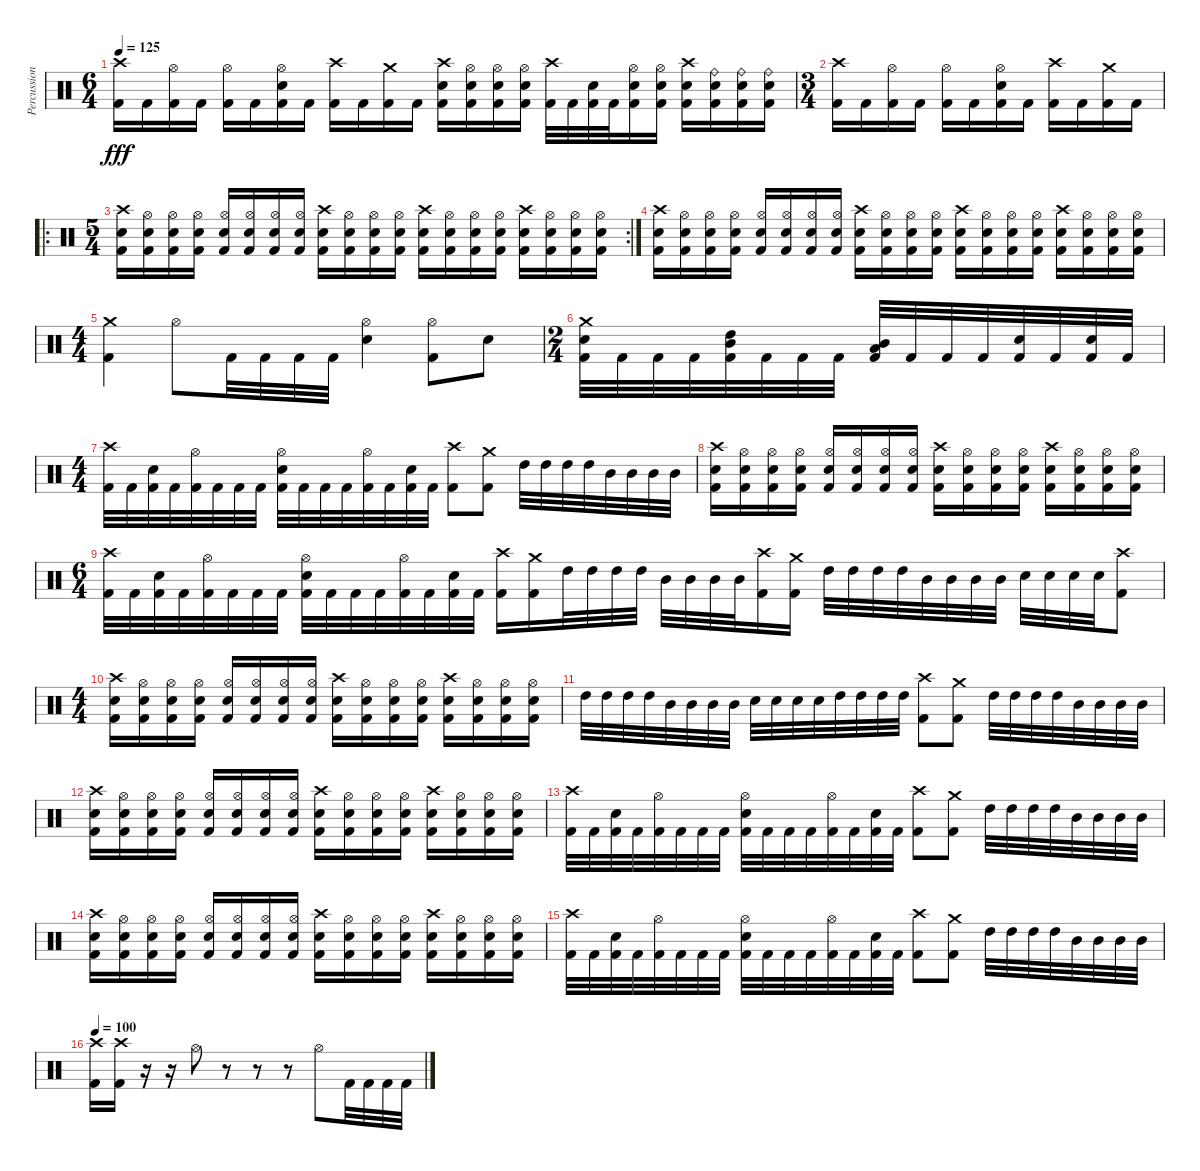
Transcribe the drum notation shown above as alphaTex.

\track ("Percussion" "Percussion") {instrument percussion}
\staff {score}
\articulation defaults
\ts (6 4)
\tempo 125
\clef neutral
\ks c
("Crash high (hit)" "Kick (hit) 2").16{dy fff} "Kick (hit) 2".16 ("Hi-Hat (open)" "Kick (hit) 2").16 "Kick (hit) 2".16 ("Hi-Hat (open)" "Kick (hit) 2").16 "Kick (hit) 2".16 ("Electric Snare (hit)" "Hi-Hat (open)" "Kick (hit) 2").16 "Kick (hit) 2".16 ("Crash high (hit)" "Kick (hit) 2").16 "Kick (hit) 2".16 ("Crash medium (hit)" "Kick (hit) 2").16 "Kick (hit) 2".16 ("Electric Snare (hit)" "Crash high (hit)" "Kick (hit) 2").16 ("Electric Snare (hit)" "Hi-Hat (open)" "Kick (hit) 2").16 ("Electric Snare (hit)" "Hi-Hat (open)" "Kick (hit) 2").16 ("Electric Snare (hit)" "Hi-Hat (open)" "Kick (hit) 2").16 ("Crash high (hit)" "Kick (hit) 2").32 "Kick (hit) 2".32 ("Electric Snare (hit)" "Kick (hit) 2").32 "Kick (hit) 2".32 ("Electric Snare (hit)" "Hi-Hat (open)" "Kick (hit) 2").16 ("Electric Snare (hit)" "Hi-Hat (open)" "Kick (hit) 2").16 ("Electric Snare (hit)" "Crash high (hit)" "Kick (hit) 2").16 ("Electric Snare (hit)" "Ride (bell)" "Kick (hit) 2").16 ("Electric Snare (hit)" "Ride (bell)" "Kick (hit) 2").16 ("Electric Snare (hit)" "Ride (bell)" "Kick (hit) 2").16 |
\ts (3 4)
("Crash high (hit)" "Kick (hit) 2").16 "Kick (hit) 2".16 ("Hi-Hat (open)" "Kick (hit) 2").16 "Kick (hit) 2".16 ("Hi-Hat (open)" "Kick (hit) 2").16 "Kick (hit) 2".16 ("Electric Snare (hit)" "Hi-Hat (open)" "Kick (hit) 2").16 "Kick (hit) 2".16 ("Crash high (hit)" "Kick (hit) 2").16 "Kick (hit) 2".16 ("Crash medium (hit)" "Kick (hit) 2").16 "Kick (hit) 2".16 |
\ro
\rc 2
\ts (5 4)
("Electric Snare (hit)" "Crash high (hit)" "Kick (hit) 2").16 ("Electric Snare (hit)" "Hi-Hat (open)" "Kick (hit) 2").16 ("Electric Snare (hit)" "Hi-Hat (open)" "Kick (hit) 2").16 ("Electric Snare (hit)" "Hi-Hat (open)" "Kick (hit) 2").16 ("Electric Snare (hit)" "Hi-Hat (open)" "Kick (hit) 2").16 ("Electric Snare (hit)" "Hi-Hat (open)" "Kick (hit) 2").16 ("Electric Snare (hit)" "Hi-Hat (open)" "Kick (hit) 2").16 ("Electric Snare (hit)" "Hi-Hat (open)" "Kick (hit) 2").16 ("Electric Snare (hit)" "Crash high (hit)" "Kick (hit) 2").16 ("Electric Snare (hit)" "Hi-Hat (open)" "Kick (hit) 2").16 ("Electric Snare (hit)" "Hi-Hat (open)" "Kick (hit) 2").16 ("Electric Snare (hit)" "Hi-Hat (open)" "Kick (hit) 2").16 ("Electric Snare (hit)" "Crash high (hit)" "Kick (hit) 2").16 ("Electric Snare (hit)" "Hi-Hat (open)" "Kick (hit) 2").16 ("Electric Snare (hit)" "Hi-Hat (open)" "Kick (hit) 2").16 ("Electric Snare (hit)" "Hi-Hat (open)" "Kick (hit) 2").16 ("Electric Snare (hit)" "Crash high (hit)" "Kick (hit) 2").16 ("Electric Snare (hit)" "Hi-Hat (open)" "Kick (hit) 2").16 ("Electric Snare (hit)" "Hi-Hat (open)" "Kick (hit) 2").16 ("Electric Snare (hit)" "Hi-Hat (open)" "Kick (hit) 2").16 |
("Electric Snare (hit)" "Crash high (hit)" "Kick (hit) 2").16 ("Electric Snare (hit)" "Hi-Hat (open)" "Kick (hit) 2").16 ("Electric Snare (hit)" "Hi-Hat (open)" "Kick (hit) 2").16 ("Electric Snare (hit)" "Hi-Hat (open)" "Kick (hit) 2").16 ("Electric Snare (hit)" "Hi-Hat (open)" "Kick (hit) 2").16 ("Electric Snare (hit)" "Hi-Hat (open)" "Kick (hit) 2").16 ("Electric Snare (hit)" "Hi-Hat (open)" "Kick (hit) 2").16 ("Electric Snare (hit)" "Hi-Hat (open)" "Kick (hit) 2").16 ("Electric Snare (hit)" "Crash high (hit)" "Kick (hit) 2").16 ("Electric Snare (hit)" "Hi-Hat (open)" "Kick (hit) 2").16 ("Electric Snare (hit)" "Hi-Hat (open)" "Kick (hit) 2").16 ("Electric Snare (hit)" "Hi-Hat (open)" "Kick (hit) 2").16 ("Electric Snare (hit)" "Crash high (hit)" "Kick (hit) 2").16 ("Electric Snare (hit)" "Hi-Hat (open)" "Kick (hit) 2").16 ("Electric Snare (hit)" "Hi-Hat (open)" "Kick (hit) 2").16 ("Electric Snare (hit)" "Hi-Hat (open)" "Kick (hit) 2").16 ("Electric Snare (hit)" "Crash high (hit)" "Kick (hit) 2").16 ("Electric Snare (hit)" "Hi-Hat (open)" "Kick (hit) 2").16 ("Electric Snare (hit)" "Hi-Hat (open)" "Kick (hit) 2").16 ("Electric Snare (hit)" "Hi-Hat (open)" "Kick (hit) 2").16 |
\ts (4 4)
("Kick (hit) 2" "Crash medium (hit)").4 "Hi-Hat (open)".8 "Kick (hit) 2".32 "Kick (hit) 2".32 "Kick (hit) 2".32 "Kick (hit) 2".32 ("Electric Snare (hit)" "Hi-Hat (open)").4 ("Kick (hit) 2" "Hi-Hat (open)").8 "Electric Snare (hit)".8 |
\ts (2 4)
("Electric Snare (hit)" "Crash medium (hit)" "Kick (hit) 2").32 "Kick (hit) 2".32 "Kick (hit) 2".32 "Kick (hit) 2".32 ("Mid Tom (hit)" "High Tom (hit)" "Kick (hit) 2").32 "Kick (hit) 2".32 "Kick (hit) 2".32 "Kick (hit) 2".32 ("Low Tom (hit)" "Mid Tom (hit)" "Kick (hit) 2").32 "Kick (hit) 2".32 "Kick (hit) 2".32 "Kick (hit) 2".32 ("Electric Snare (hit)" "Kick (hit) 2").32 "Kick (hit) 2".32 ("Electric Snare (hit)" "Kick (hit) 2").32 "Kick (hit) 2".32 |
\ts (4 4)
("Crash high (hit)" "Kick (hit) 2").32 "Kick (hit) 2".32 ("Electric Snare (hit)" "Kick (hit) 2").32 "Kick (hit) 2".32 ("Hi-Hat (open)" "Kick (hit) 2").32 "Kick (hit) 2".32 "Kick (hit) 2".32 "Kick (hit) 2".32 ("Electric Snare (hit)" "Hi-Hat (open)" "Kick (hit) 2").32 "Kick (hit) 2".32 "Kick (hit) 2".32 "Kick (hit) 2".32 ("Hi-Hat (open)" "Kick (hit) 2").32 "Kick (hit) 2".32 ("Electric Snare (hit)" "Kick (hit) 2").32 "Kick (hit) 2".32 ("Crash high (hit)" "Kick (hit) 2").8 ("Crash medium (hit)" "Kick (hit) 2").8 "High Tom (hit)".32 "High Tom (hit)".32 "High Tom (hit)".32 "High Tom (hit)".32 "Mid Tom (hit)".32 "Mid Tom (hit)".32 "Mid Tom (hit)".32 "Mid Tom (hit)".32 |
("Electric Snare (hit)" "Crash high (hit)" "Kick (hit) 2").16 ("Electric Snare (hit)" "Hi-Hat (open)" "Kick (hit) 2").16 ("Electric Snare (hit)" "Hi-Hat (open)" "Kick (hit) 2").16 ("Electric Snare (hit)" "Hi-Hat (open)" "Kick (hit) 2").16 ("Electric Snare (hit)" "Hi-Hat (open)" "Kick (hit) 2").16 ("Electric Snare (hit)" "Hi-Hat (open)" "Kick (hit) 2").16 ("Electric Snare (hit)" "Hi-Hat (open)" "Kick (hit) 2").16 ("Electric Snare (hit)" "Hi-Hat (open)" "Kick (hit) 2").16 ("Electric Snare (hit)" "Crash high (hit)" "Kick (hit) 2").16 ("Electric Snare (hit)" "Hi-Hat (open)" "Kick (hit) 2").16 ("Electric Snare (hit)" "Hi-Hat (open)" "Kick (hit) 2").16 ("Electric Snare (hit)" "Hi-Hat (open)" "Kick (hit) 2").16 ("Electric Snare (hit)" "Crash high (hit)" "Kick (hit) 2").16 ("Electric Snare (hit)" "Hi-Hat (open)" "Kick (hit) 2").16 ("Electric Snare (hit)" "Hi-Hat (open)" "Kick (hit) 2").16 ("Electric Snare (hit)" "Hi-Hat (open)" "Kick (hit) 2").16 |
\ts (6 4)
("Crash high (hit)" "Kick (hit) 2").32 "Kick (hit) 2".32 ("Electric Snare (hit)" "Kick (hit) 2").32 "Kick (hit) 2".32 ("Hi-Hat (open)" "Kick (hit) 2").32 "Kick (hit) 2".32 "Kick (hit) 2".32 "Kick (hit) 2".32 ("Electric Snare (hit)" "Hi-Hat (open)" "Kick (hit) 2").32 "Kick (hit) 2".32 "Kick (hit) 2".32 "Kick (hit) 2".32 ("Hi-Hat (open)" "Kick (hit) 2").32 "Kick (hit) 2".32 ("Electric Snare (hit)" "Kick (hit) 2").32 "Kick (hit) 2".32 ("Crash high (hit)" "Kick (hit) 2").16 ("Crash medium (hit)" "Kick (hit) 2").16 "High Tom (hit)".32 "High Tom (hit)".32 "High Tom (hit)".32 "High Tom (hit)".32 "Mid Tom (hit)".32 "Mid Tom (hit)".32 "Mid Tom (hit)".32 "Mid Tom (hit)".32 ("Crash high (hit)" "Kick (hit) 2").16 ("Crash medium (hit)" "Kick (hit) 2").16 "High Tom (hit)".32 "High Tom (hit)".32 "High Tom (hit)".32 "High Tom (hit)".32 "Mid Tom (hit)".32 "Mid Tom (hit)".32 "Mid Tom (hit)".32 "Mid Tom (hit)".32 "Electric Snare (hit)".32 "Electric Snare (hit)".32 "Electric Snare (hit)".32 "Electric Snare (hit)".32 ("Kick (hit) 2" "Crash high (hit)").8 |
\ts (4 4)
("Electric Snare (hit)" "Crash high (hit)" "Kick (hit) 2").16 ("Electric Snare (hit)" "Hi-Hat (open)" "Kick (hit) 2").16 ("Electric Snare (hit)" "Hi-Hat (open)" "Kick (hit) 2").16 ("Electric Snare (hit)" "Hi-Hat (open)" "Kick (hit) 2").16 ("Electric Snare (hit)" "Hi-Hat (open)" "Kick (hit) 2").16 ("Electric Snare (hit)" "Hi-Hat (open)" "Kick (hit) 2").16 ("Electric Snare (hit)" "Hi-Hat (open)" "Kick (hit) 2").16 ("Electric Snare (hit)" "Hi-Hat (open)" "Kick (hit) 2").16 ("Electric Snare (hit)" "Crash high (hit)" "Kick (hit) 2").16 ("Electric Snare (hit)" "Hi-Hat (open)" "Kick (hit) 2").16 ("Electric Snare (hit)" "Hi-Hat (open)" "Kick (hit) 2").16 ("Electric Snare (hit)" "Hi-Hat (open)" "Kick (hit) 2").16 ("Electric Snare (hit)" "Crash high (hit)" "Kick (hit) 2").16 ("Electric Snare (hit)" "Hi-Hat (open)" "Kick (hit) 2").16 ("Electric Snare (hit)" "Hi-Hat (open)" "Kick (hit) 2").16 ("Electric Snare (hit)" "Hi-Hat (open)" "Kick (hit) 2").16 |
"High Tom (hit)".32 "High Tom (hit)".32 "High Tom (hit)".32 "High Tom (hit)".32 "Mid Tom (hit)".32 "Mid Tom (hit)".32 "Mid Tom (hit)".32 "Mid Tom (hit)".32 "Electric Snare (hit)".32 "Electric Snare (hit)".32 "Electric Snare (hit)".32 "Electric Snare (hit)".32 "High Tom (hit)".32 "High Tom (hit)".32 "High Tom (hit)".32 "High Tom (hit)".32 ("Crash high (hit)" "Kick (hit) 2").8 ("Crash medium (hit)" "Kick (hit) 2").8 "High Tom (hit)".32 "High Tom (hit)".32 "High Tom (hit)".32 "High Tom (hit)".32 "Mid Tom (hit)".32 "Mid Tom (hit)".32 "Mid Tom (hit)".32 "Mid Tom (hit)".32 |
("Electric Snare (hit)" "Crash high (hit)" "Kick (hit) 2").16 ("Electric Snare (hit)" "Hi-Hat (open)" "Kick (hit) 2").16 ("Electric Snare (hit)" "Hi-Hat (open)" "Kick (hit) 2").16 ("Electric Snare (hit)" "Hi-Hat (open)" "Kick (hit) 2").16 ("Electric Snare (hit)" "Hi-Hat (open)" "Kick (hit) 2").16 ("Electric Snare (hit)" "Hi-Hat (open)" "Kick (hit) 2").16 ("Electric Snare (hit)" "Hi-Hat (open)" "Kick (hit) 2").16 ("Electric Snare (hit)" "Hi-Hat (open)" "Kick (hit) 2").16 ("Electric Snare (hit)" "Crash high (hit)" "Kick (hit) 2").16 ("Electric Snare (hit)" "Hi-Hat (open)" "Kick (hit) 2").16 ("Electric Snare (hit)" "Hi-Hat (open)" "Kick (hit) 2").16 ("Electric Snare (hit)" "Hi-Hat (open)" "Kick (hit) 2").16 ("Electric Snare (hit)" "Crash high (hit)" "Kick (hit) 2").16 ("Electric Snare (hit)" "Hi-Hat (open)" "Kick (hit) 2").16 ("Electric Snare (hit)" "Hi-Hat (open)" "Kick (hit) 2").16 ("Electric Snare (hit)" "Hi-Hat (open)" "Kick (hit) 2").16 |
("Crash high (hit)" "Kick (hit) 2").32 "Kick (hit) 2".32 ("Electric Snare (hit)" "Kick (hit) 2").32 "Kick (hit) 2".32 ("Hi-Hat (open)" "Kick (hit) 2").32 "Kick (hit) 2".32 "Kick (hit) 2".32 "Kick (hit) 2".32 ("Electric Snare (hit)" "Hi-Hat (open)" "Kick (hit) 2").32 "Kick (hit) 2".32 "Kick (hit) 2".32 "Kick (hit) 2".32 ("Hi-Hat (open)" "Kick (hit) 2").32 "Kick (hit) 2".32 ("Electric Snare (hit)" "Kick (hit) 2").32 "Kick (hit) 2".32 ("Crash high (hit)" "Kick (hit) 2").8 ("Crash medium (hit)" "Kick (hit) 2").8 "High Tom (hit)".32 "High Tom (hit)".32 "High Tom (hit)".32 "High Tom (hit)".32 "Mid Tom (hit)".32 "Mid Tom (hit)".32 "Mid Tom (hit)".32 "Mid Tom (hit)".32 |
("Electric Snare (hit)" "Crash high (hit)" "Kick (hit) 2").16 ("Electric Snare (hit)" "Hi-Hat (open)" "Kick (hit) 2").16 ("Electric Snare (hit)" "Hi-Hat (open)" "Kick (hit) 2").16 ("Electric Snare (hit)" "Hi-Hat (open)" "Kick (hit) 2").16 ("Electric Snare (hit)" "Hi-Hat (open)" "Kick (hit) 2").16 ("Electric Snare (hit)" "Hi-Hat (open)" "Kick (hit) 2").16 ("Electric Snare (hit)" "Hi-Hat (open)" "Kick (hit) 2").16 ("Electric Snare (hit)" "Hi-Hat (open)" "Kick (hit) 2").16 ("Electric Snare (hit)" "Crash high (hit)" "Kick (hit) 2").16 ("Electric Snare (hit)" "Hi-Hat (open)" "Kick (hit) 2").16 ("Electric Snare (hit)" "Hi-Hat (open)" "Kick (hit) 2").16 ("Electric Snare (hit)" "Hi-Hat (open)" "Kick (hit) 2").16 ("Electric Snare (hit)" "Crash high (hit)" "Kick (hit) 2").16 ("Electric Snare (hit)" "Hi-Hat (open)" "Kick (hit) 2").16 ("Electric Snare (hit)" "Hi-Hat (open)" "Kick (hit) 2").16 ("Electric Snare (hit)" "Hi-Hat (open)" "Kick (hit) 2").16 |
("Crash high (hit)" "Kick (hit) 2").32 "Kick (hit) 2".32 ("Electric Snare (hit)" "Kick (hit) 2").32 "Kick (hit) 2".32 ("Hi-Hat (open)" "Kick (hit) 2").32 "Kick (hit) 2".32 "Kick (hit) 2".32 "Kick (hit) 2".32 ("Electric Snare (hit)" "Hi-Hat (open)" "Kick (hit) 2").32 "Kick (hit) 2".32 "Kick (hit) 2".32 "Kick (hit) 2".32 ("Hi-Hat (open)" "Kick (hit) 2").32 "Kick (hit) 2".32 ("Electric Snare (hit)" "Kick (hit) 2").32 "Kick (hit) 2".32 ("Crash high (hit)" "Kick (hit) 2").8 ("Crash medium (hit)" "Kick (hit) 2").8 "High Tom (hit)".32 "High Tom (hit)".32 "High Tom (hit)".32 "High Tom (hit)".32 "Mid Tom (hit)".32 "Mid Tom (hit)".32 "Mid Tom (hit)".32 "Mid Tom (hit)".32 |
\tempo 100
("Crash high (hit)" "Kick (hit) 2").16 ("Crash high (hit)" "Kick (hit) 2").16 r.16 r.16 "Hi-Hat (open)".8 r.8 r.8 r.8 "Hi-Hat (open)".8 "Kick (hit) 2".32 "Kick (hit) 2".32 "Kick (hit) 2".32 "Kick (hit) 2".32
